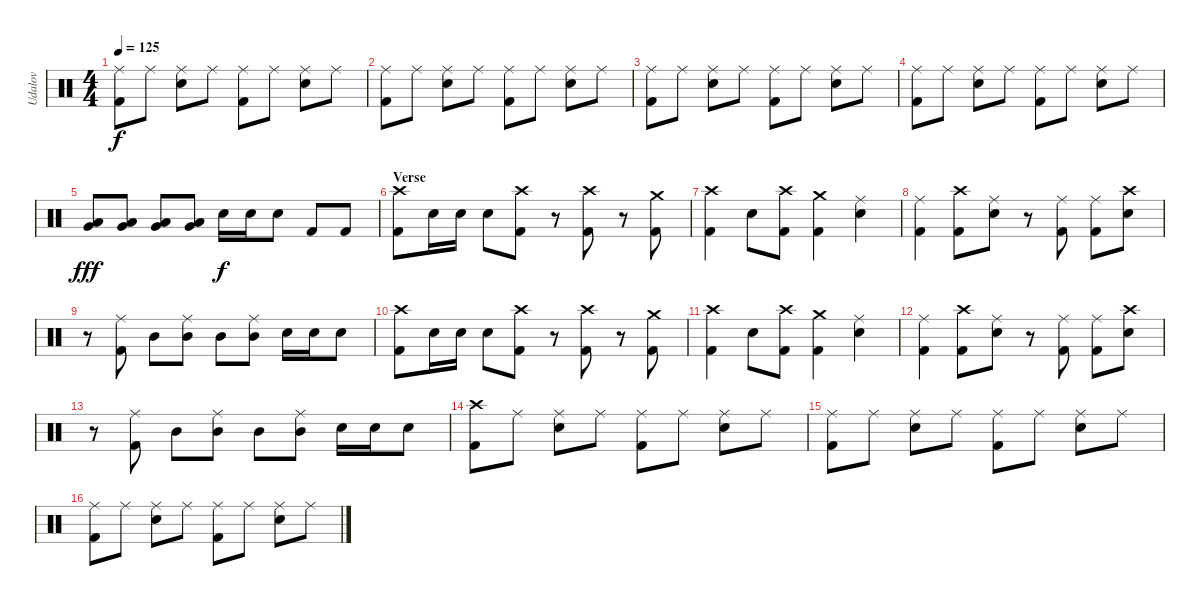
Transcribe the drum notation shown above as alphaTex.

\track ("Udalov" "Udalov") {instrument percussion}
\staff {score}
\articulation defaults
\ts (4 4)
\tempo 125
\clef neutral
\ks c
("Kick (hit) 2" "Ride (middle)").8{dy f} "Ride (middle)".8 ("Snare (hit) 2" "Ride (middle)").8 "Ride (middle)".8 ("Kick (hit) 2" "Ride (middle)").8 "Ride (middle)".8 ("Snare (hit) 2" "Ride (middle)").8 "Ride (middle)".8 |
("Kick (hit) 2" "Ride (middle)").8 "Ride (middle)".8 ("Snare (hit) 2" "Ride (middle)").8 "Ride (middle)".8 ("Kick (hit) 2" "Ride (middle)").8 "Ride (middle)".8 ("Snare (hit) 2" "Ride (middle)").8 "Ride (middle)".8 |
("Kick (hit) 2" "Ride (middle)").8 "Ride (middle)".8 ("Snare (hit) 2" "Ride (middle)").8 "Ride (middle)".8 ("Kick (hit) 2" "Ride (middle)").8 "Ride (middle)".8 ("Snare (hit) 2" "Ride (middle)").8 "Ride (middle)".8 |
("Kick (hit) 2" "Ride (middle)").8 "Ride (middle)".8 ("Snare (hit) 2" "Ride (middle)").8 "Ride (middle)".8 ("Kick (hit) 2" "Ride (middle)").8 "Ride (middle)".8 ("Snare (hit) 2" "Ride (middle)").8 "Ride (middle)".8 |
("Low Tom (hit)" "Very Low Tom (hit)").8{dy fff} ("Low Tom (hit)" "Very Low Tom (hit)").8 ("Low Tom (hit)" "Very Low Tom (hit)").8 ("Low Tom (hit)" "Very Low Tom (hit)").8 "Snare (hit) 2".16{dy f} "Snare (hit) 2".16 "Snare (hit) 2".8 "Kick (hit) 2".8 "Kick (hit) 2".8 |
\section ("" "Verse")
("Kick (hit) 2" "Crash high (hit)").8 "Snare (hit) 2".16 "Electric Snare (hit)".16 "Snare (hit) 2".8 ("Kick (hit) 2" "Crash high (hit)").8 r.8 ("Kick (hit) 2" "Crash high (hit)").8 r.8 ("Kick (hit) 2" "Crash medium (hit)").8 |
("Kick (hit) 2" "Crash high (hit)").4 "Snare (hit) 2".8 ("Kick (hit) 2" "Crash high (hit)").8 ("Kick (hit) 2" "Crash medium (hit)").4 ("Snare (hit) 2" "Ride (middle)").4 |
("Kick (hit) 2" "Ride (middle)").4 ("Kick (hit) 2" "Crash high (hit)").8 ("Snare (hit) 2" "Ride (middle)").8 r.8 ("Kick (hit) 2" "Ride (middle)").8 ("Kick (hit) 2" "Ride (middle)").8 ("Snare (hit) 2" "Crash high (hit)").8 |
r.8 ("Kick (hit) 2" "Ride (middle)").8 "Mid Tom (hit)".8 ("Mid Tom (hit)" "Ride (middle)").8 "Mid Tom (hit)".8 ("Mid Tom (hit)" "Ride (middle)").8 "Electric Snare (hit)".16 "Electric Snare (hit)".16 "Electric Snare (hit)".8 |
("Kick (hit) 2" "Crash high (hit)").8 "Snare (hit) 2".16 "Electric Snare (hit)".16 "Snare (hit) 2".8 ("Kick (hit) 2" "Crash high (hit)").8 r.8 ("Kick (hit) 2" "Crash high (hit)").8 r.8 ("Kick (hit) 2" "Crash medium (hit)").8 |
("Kick (hit) 2" "Crash high (hit)").4 "Snare (hit) 2".8 ("Kick (hit) 2" "Crash high (hit)").8 ("Kick (hit) 2" "Crash medium (hit)").4 ("Snare (hit) 2" "Ride (middle)").4 |
("Kick (hit) 2" "Ride (middle)").4 ("Kick (hit) 2" "Crash high (hit)").8 ("Snare (hit) 2" "Ride (middle)").8 r.8 ("Kick (hit) 2" "Ride (middle)").8 ("Kick (hit) 2" "Ride (middle)").8 ("Snare (hit) 2" "Crash high (hit)").8 |
r.8 ("Kick (hit) 2" "Ride (middle)").8 "Mid Tom (hit)".8 ("Mid Tom (hit)" "Ride (middle)").8 "Mid Tom (hit)".8 ("Mid Tom (hit)" "Ride (middle)").8 "Electric Snare (hit)".16 "Electric Snare (hit)".16 "Electric Snare (hit)".8 |
("Kick (hit) 2" "Crash high (hit)").8 "Ride (middle)".8 ("Snare (hit) 2" "Ride (middle)").8 "Ride (middle)".8 ("Kick (hit) 2" "Ride (middle)").8 "Ride (middle)".8 ("Snare (hit) 2" "Ride (middle)").8 "Ride (middle)".8 |
("Kick (hit) 2" "Ride (middle)").8 "Ride (middle)".8 ("Snare (hit) 2" "Ride (middle)").8 "Ride (middle)".8 ("Kick (hit) 2" "Ride (middle)").8 "Ride (middle)".8 ("Snare (hit) 2" "Ride (middle)").8 "Ride (middle)".8 |
("Kick (hit) 2" "Ride (middle)").8 "Ride (middle)".8 ("Snare (hit) 2" "Ride (middle)").8 "Ride (middle)".8 ("Kick (hit) 2" "Ride (middle)").8 "Ride (middle)".8 ("Snare (hit) 2" "Ride (middle)").8 "Ride (middle)".8
